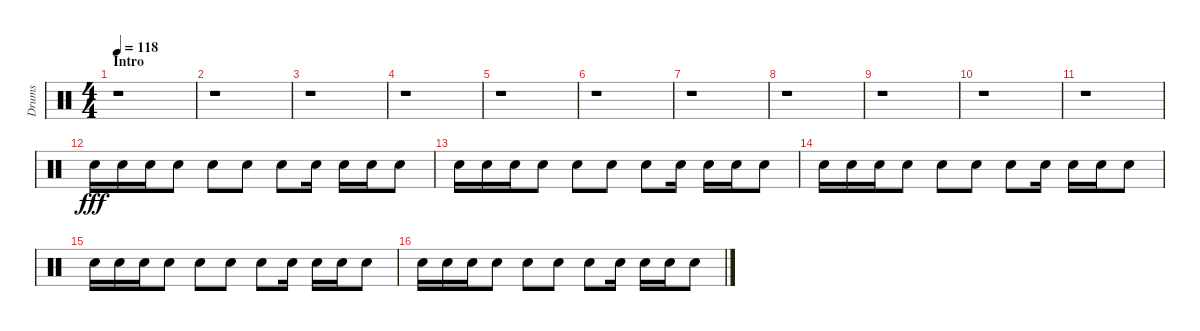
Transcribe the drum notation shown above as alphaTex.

\track ("Drums" "Drums") {instrument percussion}
\staff {score}
\articulation defaults
\ts (4 4)
\section ("" "Intro")
\tempo 118
\clef neutral
\ks c
r.1{dy fff} |
r.1 |
r.1 |
r.1 |
r.1 |
r.1 |
r.1 |
r.1 |
r.1 |
r.1 |
r.1 |
"Electric Snare (hit)".16 "Electric Snare (hit)".16 "Electric Snare (hit)".16 "Electric Snare (hit)".8 "Electric Snare (hit)".8 "Electric Snare (hit)".8 "Electric Snare (hit)".8 "Electric Snare (hit)".16 "Electric Snare (hit)".16 "Electric Snare (hit)".16 "Electric Snare (hit)".8 |
"Electric Snare (hit)".16 "Electric Snare (hit)".16 "Electric Snare (hit)".16 "Electric Snare (hit)".8 "Electric Snare (hit)".8 "Electric Snare (hit)".8 "Electric Snare (hit)".8 "Electric Snare (hit)".16 "Electric Snare (hit)".16 "Electric Snare (hit)".16 "Electric Snare (hit)".8 |
"Electric Snare (hit)".16 "Electric Snare (hit)".16 "Electric Snare (hit)".16 "Electric Snare (hit)".8 "Electric Snare (hit)".8 "Electric Snare (hit)".8 "Electric Snare (hit)".8 "Electric Snare (hit)".16 "Electric Snare (hit)".16 "Electric Snare (hit)".16 "Electric Snare (hit)".8 |
"Electric Snare (hit)".16 "Electric Snare (hit)".16 "Electric Snare (hit)".16 "Electric Snare (hit)".8 "Electric Snare (hit)".8 "Electric Snare (hit)".8 "Electric Snare (hit)".8 "Electric Snare (hit)".16 "Electric Snare (hit)".16 "Electric Snare (hit)".16 "Electric Snare (hit)".8 |
"Electric Snare (hit)".16 "Electric Snare (hit)".16 "Electric Snare (hit)".16 "Electric Snare (hit)".8 "Electric Snare (hit)".8 "Electric Snare (hit)".8 "Electric Snare (hit)".8 "Electric Snare (hit)".16 "Electric Snare (hit)".16 "Electric Snare (hit)".16 "Electric Snare (hit)".8
